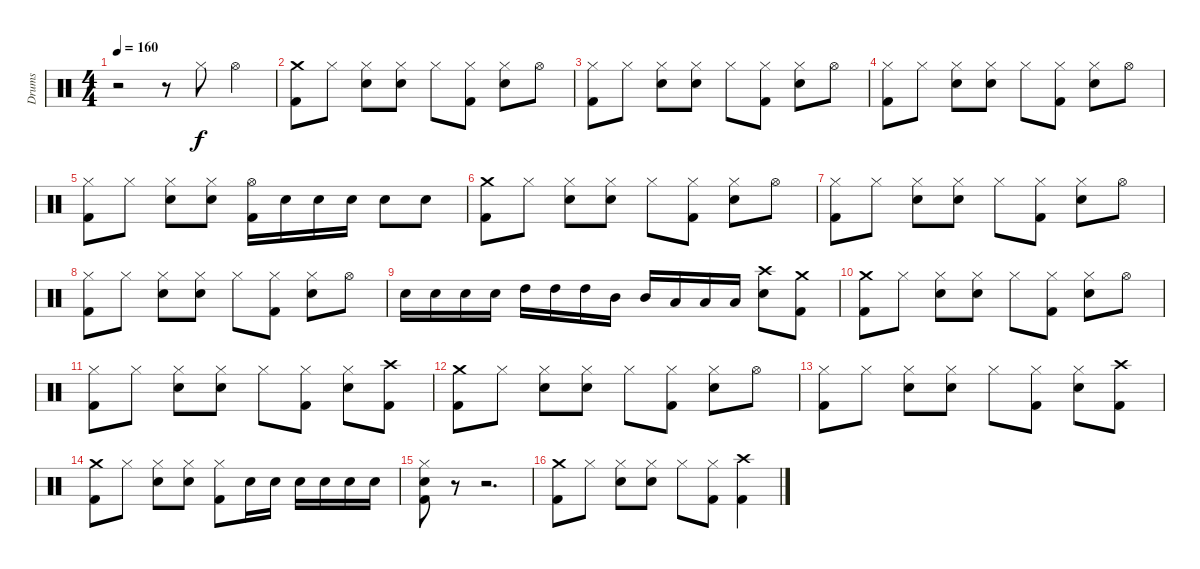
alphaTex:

\track ("Drums" "Drums") {instrument percussion}
\staff {score}
\articulation defaults
\ts (4 4)
\tempo 160
\clef neutral
\ks c
r.2{dy f} r.8 "Hi-Hat (closed)".8 "Hi-Hat (open)".4 |
("Crash medium (hit)" "Kick (hit) 2").8 "Hi-Hat (closed)".8 ("Hi-Hat (closed)" "Snare (hit) 2").8 ("Hi-Hat (closed)" "Snare (hit) 2").8 "Hi-Hat (closed)".8 ("Hi-Hat (closed)" "Kick (hit) 2").8 ("Hi-Hat (closed)" "Snare (hit) 2").8 "Hi-Hat (open)".8 |
("Hi-Hat (closed)" "Kick (hit) 2").8 "Hi-Hat (closed)".8 ("Hi-Hat (closed)" "Snare (hit) 2").8 ("Hi-Hat (closed)" "Snare (hit) 2").8 "Hi-Hat (closed)".8 ("Hi-Hat (closed)" "Kick (hit) 2").8 ("Hi-Hat (closed)" "Snare (hit) 2").8 "Hi-Hat (open)".8 |
("Hi-Hat (closed)" "Kick (hit) 2").8 "Hi-Hat (closed)".8 ("Hi-Hat (closed)" "Snare (hit) 2").8 ("Hi-Hat (closed)" "Snare (hit) 2").8 "Hi-Hat (closed)".8 ("Hi-Hat (closed)" "Kick (hit) 2").8 ("Hi-Hat (closed)" "Snare (hit) 2").8 "Hi-Hat (open)".8 |
("Hi-Hat (closed)" "Kick (hit) 2").8 "Hi-Hat (closed)".8 ("Hi-Hat (closed)" "Snare (hit) 2").8 ("Hi-Hat (closed)" "Snare (hit) 2").8 ("Hi-Hat (open)" "Kick (hit) 2").16 "Snare (hit) 2".16 "Snare (hit) 2".16 "Snare (hit) 2".16 "Snare (hit) 2".8 "Snare (hit) 2".8 |
("Crash medium (hit)" "Kick (hit) 2").8 "Hi-Hat (closed)".8 ("Hi-Hat (closed)" "Snare (hit) 2").8 ("Hi-Hat (closed)" "Snare (hit) 2").8 "Hi-Hat (closed)".8 ("Hi-Hat (closed)" "Kick (hit) 2").8 ("Hi-Hat (closed)" "Snare (hit) 2").8 "Hi-Hat (open)".8 |
("Hi-Hat (closed)" "Kick (hit) 2").8 "Hi-Hat (closed)".8 ("Hi-Hat (closed)" "Snare (hit) 2").8 ("Hi-Hat (closed)" "Snare (hit) 2").8 "Hi-Hat (closed)".8 ("Hi-Hat (closed)" "Kick (hit) 2").8 ("Hi-Hat (closed)" "Snare (hit) 2").8 "Hi-Hat (open)".8 |
("Hi-Hat (closed)" "Kick (hit) 2").8 "Hi-Hat (closed)".8 ("Hi-Hat (closed)" "Snare (hit) 2").8 ("Hi-Hat (closed)" "Snare (hit) 2").8 "Hi-Hat (closed)".8 ("Hi-Hat (closed)" "Kick (hit) 2").8 ("Hi-Hat (closed)" "Snare (hit) 2").8 "Hi-Hat (open)".8 |
"Snare (hit) 2".16 "Snare (hit) 2".16 "Snare (hit) 2".16 "Snare (hit) 2".16 "High Tom (hit)".16 "High Tom (hit)".16 "High Tom (hit)".16 "Mid Tom (hit)".16 "Mid Tom (hit)".16 "Low Tom (hit)".16 "Low Tom (hit)".16 "Low Tom (hit)".16 ("Crash high (hit)" "Snare (hit) 2").8 ("Crash medium (hit)" "Kick (hit) 2").8 |
("Crash medium (hit)" "Kick (hit) 2").8 "Hi-Hat (closed)".8 ("Hi-Hat (closed)" "Snare (hit) 2").8 ("Hi-Hat (closed)" "Snare (hit) 2").8 "Hi-Hat (closed)".8 ("Hi-Hat (closed)" "Kick (hit) 2").8 ("Hi-Hat (closed)" "Snare (hit) 2").8 "Hi-Hat (open)".8 |
("Hi-Hat (closed)" "Kick (hit) 2").8 "Hi-Hat (closed)".8 ("Hi-Hat (closed)" "Snare (hit) 2").8 ("Hi-Hat (closed)" "Snare (hit) 2").8 "Hi-Hat (closed)".8 ("Hi-Hat (closed)" "Kick (hit) 2").8 ("Hi-Hat (closed)" "Snare (hit) 2").8 ("Kick (hit) 2" "Crash high (hit)").8 |
("Crash medium (hit)" "Kick (hit) 2").8 "Hi-Hat (closed)".8 ("Hi-Hat (closed)" "Snare (hit) 2").8 ("Hi-Hat (closed)" "Snare (hit) 2").8 "Hi-Hat (closed)".8 ("Hi-Hat (closed)" "Kick (hit) 2").8 ("Hi-Hat (closed)" "Snare (hit) 2").8 "Hi-Hat (open)".8 |
("Hi-Hat (closed)" "Kick (hit) 2").8 "Hi-Hat (closed)".8 ("Hi-Hat (closed)" "Snare (hit) 2").8 ("Hi-Hat (closed)" "Snare (hit) 2").8 "Hi-Hat (closed)".8 ("Hi-Hat (closed)" "Kick (hit) 2").8 ("Hi-Hat (closed)" "Snare (hit) 2").8 ("Crash high (hit)" "Kick (hit) 2").8 |
("Crash medium (hit)" "Kick (hit) 2").8 "Hi-Hat (closed)".8 ("Hi-Hat (closed)" "Snare (hit) 2").8 ("Hi-Hat (closed)" "Snare (hit) 2").8 ("Hi-Hat (closed)" "Kick (hit) 2").8 "Snare (hit) 2".16 "Snare (hit) 2".16 "Snare (hit) 2".16 "Snare (hit) 2".16 "Snare (hit) 2".16 "Snare (hit) 2".16 |
("Hi-Hat (closed)" "Snare (hit) 2" "Kick (hit) 2").8 r.8 r.2{d} |
("Crash medium (hit)" "Kick (hit) 2").8 "Hi-Hat (closed)".8 ("Hi-Hat (closed)" "Snare (hit) 2").8 ("Hi-Hat (closed)" "Snare (hit) 2").8 "Hi-Hat (closed)".8 ("Hi-Hat (closed)" "Kick (hit) 2").8 ("Crash high (hit)" "Kick (hit) 2").4
